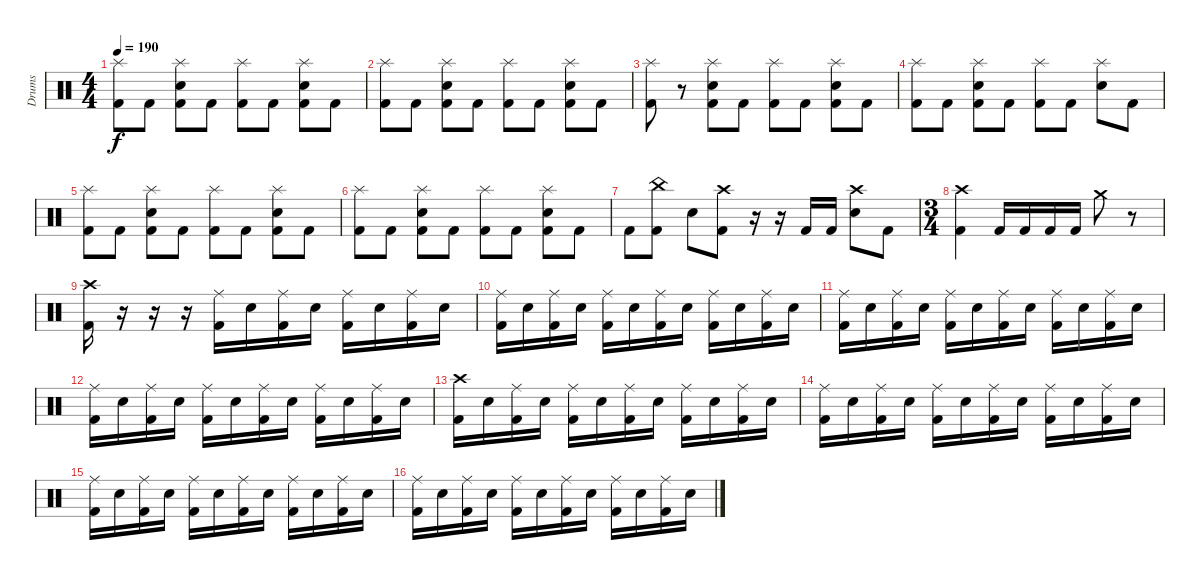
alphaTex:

\track ("Drums" "Drums") {instrument percussion}
\staff {score}
\articulation defaults
\ts (4 4)
\tempo 190
\clef neutral
\ks c
("Splash (hit)" "Kick (hit) 2").8{dy f} "Kick (hit) 2".8 ("Splash (hit)" "Snare (hit) 2" "Kick (hit) 2").8 "Kick (hit) 2".8 ("Splash (hit)" "Kick (hit) 2").8 "Kick (hit) 2".8 ("Splash (hit)" "Snare (hit) 2" "Kick (hit) 2").8 "Kick (hit) 2".8 |
("Splash (hit)" "Kick (hit) 2").8 "Kick (hit) 2".8 ("Splash (hit)" "Snare (hit) 2" "Kick (hit) 2").8 "Kick (hit) 2".8 ("Splash (hit)" "Kick (hit) 2").8 "Kick (hit) 2".8 ("Splash (hit)" "Snare (hit) 2" "Kick (hit) 2").8 "Kick (hit) 2".8 |
("Splash (hit)" "Kick (hit) 2").8 r.8 ("Splash (hit)" "Snare (hit) 2" "Kick (hit) 2").8 "Kick (hit) 2".8 ("Splash (hit)" "Kick (hit) 2").8 "Kick (hit) 2".8 ("Splash (hit)" "Snare (hit) 2" "Kick (hit) 2").8 "Kick (hit) 2".8 |
("Splash (hit)" "Kick (hit) 2").8 "Kick (hit) 2".8 ("Splash (hit)" "Snare (hit) 2" "Kick (hit) 2").8 "Kick (hit) 2".8 ("Splash (hit)" "Kick (hit) 2").8 "Kick (hit) 2".8 ("Splash (hit)" "Snare (hit) 2").8 "Kick (hit) 2".8 |
("Splash (hit)" "Kick (hit) 2").8 "Kick (hit) 2".8 ("Splash (hit)" "Snare (hit) 2" "Kick (hit) 2").8 "Kick (hit) 2".8 ("Splash (hit)" "Kick (hit) 2").8 "Kick (hit) 2".8 ("Splash (hit)" "Snare (hit) 2" "Kick (hit) 2").8 "Kick (hit) 2".8 |
("Splash (hit)" "Kick (hit) 2").8 "Kick (hit) 2".8 ("Splash (hit)" "Snare (hit) 2" "Kick (hit) 2").8 "Kick (hit) 2".8 ("Splash (hit)" "Kick (hit) 2").8 "Kick (hit) 2".8 ("Splash (hit)" "Snare (hit) 2" "Kick (hit) 2").8 "Kick (hit) 2".8 |
"Kick (hit) 2".8 ("China (hit)" "Kick (hit) 2").8 "Snare (hit) 2".8 ("Crash high (hit)" "Kick (hit) 2").8 r.16 r.16 "Kick (hit) 2".16 "Kick (hit) 2".16 ("Crash high (hit)" "Snare (hit) 2").8 "Kick (hit) 2".8 |
\ts (3 4)
("Crash high (hit)" "Kick (hit) 2").4 "Kick (hit) 2".16 "Kick (hit) 2".16 "Kick (hit) 2".16 "Kick (hit) 2".16 "Crash medium (hit)".8 r.8 |
("Crash high (hit)" "Kick (hit) 2").16 r.16 r.16 r.16 ("Ride (middle)" "Kick (hit) 2").16 "Snare (hit) 2".16 ("Ride (middle)" "Kick (hit) 2").16 "Snare (hit) 2".16 ("Ride (middle)" "Kick (hit) 2").16 "Snare (hit) 2".16 ("Ride (middle)" "Kick (hit) 2").16 "Snare (hit) 2".16 |
("Ride (middle)" "Kick (hit) 2").16 "Snare (hit) 2".16 ("Ride (middle)" "Kick (hit) 2").16 "Snare (hit) 2".16 ("Ride (middle)" "Kick (hit) 2").16 "Snare (hit) 2".16 ("Ride (middle)" "Kick (hit) 2").16 "Snare (hit) 2".16 ("Ride (middle)" "Kick (hit) 2").16 "Snare (hit) 2".16 ("Ride (middle)" "Kick (hit) 2").16 "Snare (hit) 2".16 |
("Ride (middle)" "Kick (hit) 2").16 "Snare (hit) 2".16 ("Ride (middle)" "Kick (hit) 2").16 "Snare (hit) 2".16 ("Ride (middle)" "Kick (hit) 2").16 "Snare (hit) 2".16 ("Ride (middle)" "Kick (hit) 2").16 "Snare (hit) 2".16 ("Ride (middle)" "Kick (hit) 2").16 "Snare (hit) 2".16 ("Ride (middle)" "Kick (hit) 2").16 "Snare (hit) 2".16 |
("Ride (middle)" "Kick (hit) 2").16 "Snare (hit) 2".16 ("Ride (middle)" "Kick (hit) 2").16 "Snare (hit) 2".16 ("Ride (middle)" "Kick (hit) 2").16 "Snare (hit) 2".16 ("Ride (middle)" "Kick (hit) 2").16 "Snare (hit) 2".16 ("Ride (middle)" "Kick (hit) 2").16 "Snare (hit) 2".16 ("Ride (middle)" "Kick (hit) 2").16 "Snare (hit) 2".16 |
("Crash high (hit)" "Kick (hit) 2").16 "Snare (hit) 2".16 ("Ride (middle)" "Kick (hit) 2").16 "Snare (hit) 2".16 ("Ride (middle)" "Kick (hit) 2").16 "Snare (hit) 2".16 ("Ride (middle)" "Kick (hit) 2").16 "Snare (hit) 2".16 ("Ride (middle)" "Kick (hit) 2").16 "Snare (hit) 2".16 ("Ride (middle)" "Kick (hit) 2").16 "Snare (hit) 2".16 |
("Ride (middle)" "Kick (hit) 2").16 "Snare (hit) 2".16 ("Ride (middle)" "Kick (hit) 2").16 "Snare (hit) 2".16 ("Ride (middle)" "Kick (hit) 2").16 "Snare (hit) 2".16 ("Ride (middle)" "Kick (hit) 2").16 "Snare (hit) 2".16 ("Ride (middle)" "Kick (hit) 2").16 "Snare (hit) 2".16 ("Ride (middle)" "Kick (hit) 2").16 "Snare (hit) 2".16 |
("Ride (middle)" "Kick (hit) 2").16 "Snare (hit) 2".16 ("Ride (middle)" "Kick (hit) 2").16 "Snare (hit) 2".16 ("Ride (middle)" "Kick (hit) 2").16 "Snare (hit) 2".16 ("Ride (middle)" "Kick (hit) 2").16 "Snare (hit) 2".16 ("Ride (middle)" "Kick (hit) 2").16 "Snare (hit) 2".16 ("Ride (middle)" "Kick (hit) 2").16 "Snare (hit) 2".16 |
("Ride (middle)" "Kick (hit) 2").16 "Snare (hit) 2".16 ("Ride (middle)" "Kick (hit) 2").16 "Snare (hit) 2".16 ("Ride (middle)" "Kick (hit) 2").16 "Snare (hit) 2".16 ("Ride (middle)" "Kick (hit) 2").16 "Snare (hit) 2".16 ("Ride (middle)" "Kick (hit) 2").16 "Snare (hit) 2".16 ("Ride (middle)" "Kick (hit) 2").16 "Snare (hit) 2".16
